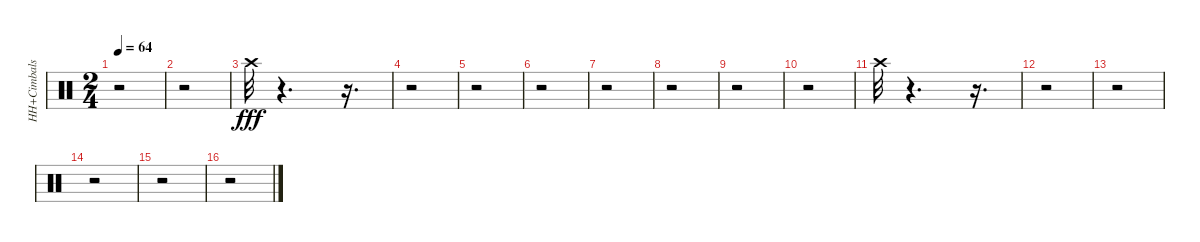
\track ("HH+Cimbals" "HH+Cimbals") {instrument percussion}
\staff {score}
\articulation defaults
\ts (2 4)
\tempo 64
\clef neutral
\ks c
r.2{dy fff} |
r.2 |
"Crash high (hit)".32 r.4{d} r.16{d} |
r.2 |
r.2 |
r.2 |
r.2 |
r.2 |
r.2 |
r.2 |
"Crash high (hit)".32 r.4{d} r.16{d} |
r.2 |
r.2 |
r.2 |
r.2 |
r.2
